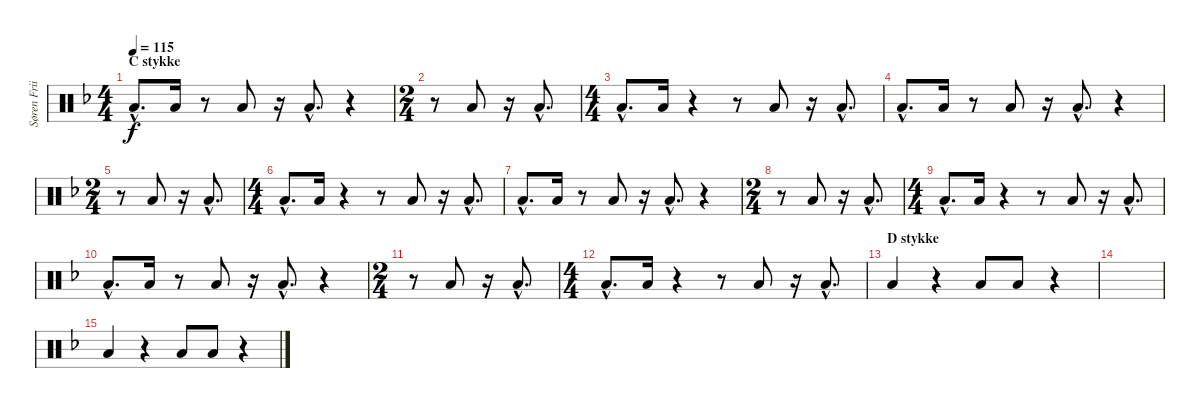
\track ("Søren Friis (Floor Drum)" "Søren Frii") {instrument percussion}
\staff {score}
\articulation defaults
\ts (4 4)
\section ("" "C stykke")
\tempo 115
\clef neutral
\ks f "Low Floor Tom (hit)"{hac}.8{d dy f} "Low Floor Tom (hit)".16
r.8 "Low Floor Tom (hit)".8 r.16 "Low Floor Tom (hit)"{hac}.8{d} r.4 |
\ts (2 4)
r.8 "Low Floor Tom (hit)".8 r.16 "Low Floor Tom (hit)"{hac}.8{d} |
\ts (4 4)
"Low Floor Tom (hit)"{hac}.8{d} "Low Floor Tom (hit)".16 r.4 r.8 "Low Floor Tom (hit)".8 r.16 "Low Floor Tom (hit)"{hac}.8{d} |
"Low Floor Tom (hit)"{hac}.8{d} "Low Floor Tom (hit)".16 r.8 "Low Floor Tom (hit)".8 r.16 "Low Floor Tom (hit)"{hac}.8{d} r.4 |
\ts (2 4)
r.8 "Low Floor Tom (hit)".8 r.16 "Low Floor Tom (hit)"{hac}.8{d} |
\ts (4 4)
"Low Floor Tom (hit)"{hac}.8{d} "Low Floor Tom (hit)".16 r.4 r.8 "Low Floor Tom (hit)".8 r.16 "Low Floor Tom (hit)"{hac}.8{d} |
"Low Floor Tom (hit)"{hac}.8{d} "Low Floor Tom (hit)".16 r.8 "Low Floor Tom (hit)".8 r.16 "Low Floor Tom (hit)"{hac}.8{d} r.4 |
\ts (2 4)
r.8 "Low Floor Tom (hit)".8 r.16 "Low Floor Tom (hit)"{hac}.8{d} |
\ts (4 4)
"Low Floor Tom (hit)"{hac}.8{d} "Low Floor Tom (hit)".16 r.4 r.8 "Low Floor Tom (hit)".8 r.16 "Low Floor Tom (hit)"{hac}.8{d} |
"Low Floor Tom (hit)"{hac}.8{d} "Low Floor Tom (hit)".16 r.8 "Low Floor Tom (hit)".8 r.16 "Low Floor Tom (hit)"{hac}.8{d} r.4 |
\ts (2 4)
r.8 "Low Floor Tom (hit)".8 r.16 "Low Floor Tom (hit)"{hac}.8{d} |
\ts (4 4)
"Low Floor Tom (hit)"{hac}.8{d} "Low Floor Tom (hit)".16 r.4 r.8 "Low Floor Tom (hit)".8 r.16 "Low Floor Tom (hit)"{hac}.8{d} |
\section ("" "D stykke")
"Low Floor Tom (hit)".4 r.4 "Low Floor Tom (hit)".8 "Low Floor Tom (hit)".8 r.4 |
|
"Low Floor Tom (hit)".4 r.4 "Low Floor Tom (hit)".8 "Low Floor Tom (hit)".8 r.4
